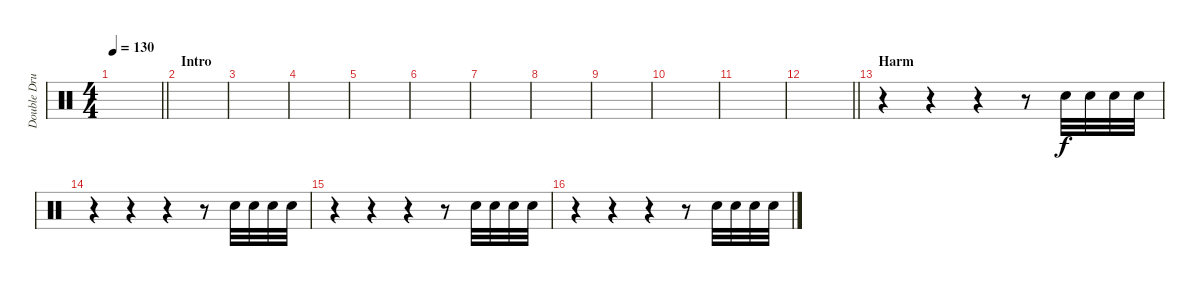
\track ("Double Drums" "Double Dru") {instrument percussion}
\staff {score}
\articulation defaults
\ts (4 4)
\tempo 130
\clef neutral
\barLineRight lightlight
\ks c
|
\section ("" "Intro")
|
|
|
|
|
|
|
|
|
|
\barLineRight lightlight
|
\section ("" "Harm")
r.4 r.4 r.4 r.8 "Snare (hit) 2".32 "Snare (hit) 2".32 "Snare (hit) 2".32 "Snare (hit) 2".32 |
r.4 r.4 r.4 r.8 "Snare (hit) 2".32 "Snare (hit) 2".32 "Snare (hit) 2".32 "Snare (hit) 2".32 |
r.4 r.4 r.4 r.8 "Snare (hit) 2".32 "Snare (hit) 2".32 "Snare (hit) 2".32 "Snare (hit) 2".32 |
r.4 r.4 r.4 r.8 "Snare (hit) 2".32 "Snare (hit) 2".32 "Snare (hit) 2".32 "Snare (hit) 2".32
